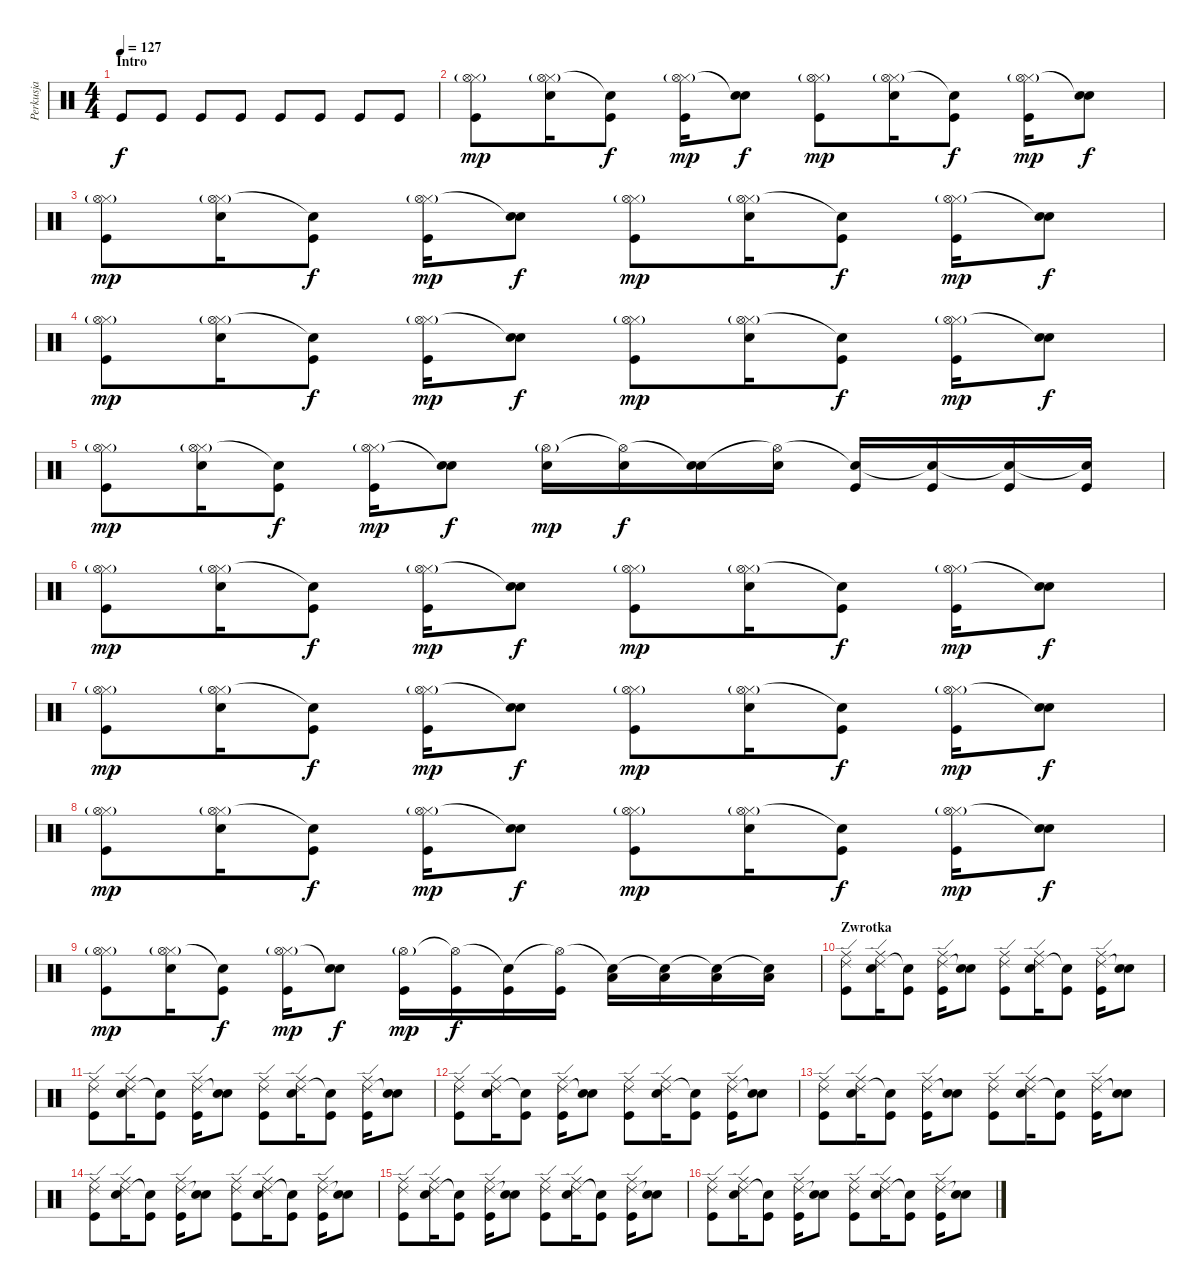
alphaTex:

\track ("Perkusja" "Perkusja") {instrument percussion}
\staff {score}
\articulation defaults
\ts (4 4)
\section ("" "Intro")
\tempo 127
\clef neutral
\ks c "Kick (hit)".8{dy f} "Kick (hit)".8 "Kick (hit)".8 "Kick (hit)".8 "Kick (hit)".8 "Kick (hit)".8 "Kick (hit)".8 "Kick (hit)".8
|
("Kick (hit)" "Hi-Hat (closed)" "Hi-Hat (open)"{g}).8{dy mp} ("Snare (hit) 2" "Hi-Hat (closed)" "Hi-Hat (open)"{g}).16 ("Kick (hit)" "Snare (hit)"{t}).8{dy f} ("Kick (hit)" "Hi-Hat (closed)" "Hi-Hat (open)"{g}).16{dy mp} ("Snare (hit) 2" "Snare (hit)"{t}).8{dy f} ("Kick (hit)" "Hi-Hat (closed)" "Hi-Hat (open)"{g}).8{dy mp} ("Snare (hit) 2" "Hi-Hat (closed)" "Hi-Hat (open)"{g}).16 ("Kick (hit)" "Snare (hit)"{t}).8{dy f} ("Kick (hit)" "Hi-Hat (closed)" "Hi-Hat (open)"{g}).16{dy mp} ("Snare (hit) 2" "Snare (hit)"{t}).8{dy f} |
("Kick (hit)" "Hi-Hat (closed)" "Hi-Hat (open)"{g}).8{dy mp} ("Snare (hit) 2" "Hi-Hat (closed)" "Hi-Hat (open)"{g}).16 ("Kick (hit)" "Snare (hit)"{t}).8{dy f} ("Kick (hit)" "Hi-Hat (closed)" "Hi-Hat (open)"{g}).16{dy mp} ("Snare (hit) 2" "Snare (hit)"{t}).8{dy f} ("Kick (hit)" "Hi-Hat (closed)" "Hi-Hat (open)"{g}).8{dy mp} ("Snare (hit) 2" "Hi-Hat (closed)" "Hi-Hat (open)"{g}).16 ("Kick (hit)" "Snare (hit)"{t}).8{dy f} ("Kick (hit)" "Hi-Hat (closed)" "Hi-Hat (open)"{g}).16{dy mp} ("Snare (hit) 2" "Snare (hit)"{t}).8{dy f} |
("Kick (hit)" "Hi-Hat (closed)" "Hi-Hat (open)"{g}).8{dy mp} ("Snare (hit) 2" "Hi-Hat (closed)" "Hi-Hat (open)"{g}).16 ("Kick (hit)" "Snare (hit)"{t}).8{dy f} ("Kick (hit)" "Hi-Hat (closed)" "Hi-Hat (open)"{g}).16{dy mp} ("Snare (hit) 2" "Snare (hit)"{t}).8{dy f} ("Kick (hit)" "Hi-Hat (closed)" "Hi-Hat (open)"{g}).8{dy mp} ("Snare (hit) 2" "Hi-Hat (closed)" "Hi-Hat (open)"{g}).16 ("Kick (hit)" "Snare (hit)"{t}).8{dy f} ("Kick (hit)" "Hi-Hat (closed)" "Hi-Hat (open)"{g}).16{dy mp} ("Snare (hit) 2" "Snare (hit)"{t}).8{dy f} |
("Kick (hit)" "Hi-Hat (closed)" "Hi-Hat (open)"{g}).8{dy mp} ("Snare (hit) 2" "Hi-Hat (closed)" "Hi-Hat (open)"{g}).16 ("Kick (hit)" "Snare (hit)"{t}).8{dy f} ("Kick (hit)" "Hi-Hat (closed)" "Hi-Hat (open)"{g}).16{dy mp} ("Snare (hit) 2" "Snare (hit)"{t}).8{dy f} ("Snare (hit) 2" "Hi-Hat (open)"{g}).16{dy mp} ("Snare (hit) 2" "Hi-Hat (open)"{t}).16{dy f} ("Snare (hit) 2" "Snare (hit)"{t}).16 ("Snare (hit) 2" "Hi-Hat (open)"{t}).16 ("Kick (hit)" "Snare (hit)"{t}).16 ("Kick (hit)" "Snare (hit)"{t}).16 ("Kick (hit)" "Snare (hit)"{t}).16 ("Kick (hit)" "Snare (hit)"{t}).16 |
("Kick (hit)" "Hi-Hat (closed)" "Hi-Hat (open)"{g}).8{dy mp} ("Snare (hit) 2" "Hi-Hat (closed)" "Hi-Hat (open)"{g}).16 ("Kick (hit)" "Snare (hit)"{t}).8{dy f} ("Kick (hit)" "Hi-Hat (closed)" "Hi-Hat (open)"{g}).16{dy mp} ("Snare (hit) 2" "Snare (hit)"{t}).8{dy f} ("Kick (hit)" "Hi-Hat (closed)" "Hi-Hat (open)"{g}).8{dy mp} ("Snare (hit) 2" "Hi-Hat (closed)" "Hi-Hat (open)"{g}).16 ("Kick (hit)" "Snare (hit)"{t}).8{dy f} ("Kick (hit)" "Hi-Hat (closed)" "Hi-Hat (open)"{g}).16{dy mp} ("Snare (hit) 2" "Snare (hit)"{t}).8{dy f} |
("Kick (hit)" "Hi-Hat (closed)" "Hi-Hat (open)"{g}).8{dy mp} ("Snare (hit) 2" "Hi-Hat (closed)" "Hi-Hat (open)"{g}).16 ("Kick (hit)" "Snare (hit)"{t}).8{dy f} ("Kick (hit)" "Hi-Hat (closed)" "Hi-Hat (open)"{g}).16{dy mp} ("Snare (hit) 2" "Snare (hit)"{t}).8{dy f} ("Kick (hit)" "Hi-Hat (closed)" "Hi-Hat (open)"{g}).8{dy mp} ("Snare (hit) 2" "Hi-Hat (closed)" "Hi-Hat (open)"{g}).16 ("Kick (hit)" "Snare (hit)"{t}).8{dy f} ("Kick (hit)" "Hi-Hat (closed)" "Hi-Hat (open)"{g}).16{dy mp} ("Snare (hit) 2" "Snare (hit)"{t}).8{dy f} |
("Kick (hit)" "Hi-Hat (closed)" "Hi-Hat (open)"{g}).8{dy mp} ("Snare (hit) 2" "Hi-Hat (closed)" "Hi-Hat (open)"{g}).16 ("Kick (hit)" "Snare (hit)"{t}).8{dy f} ("Kick (hit)" "Hi-Hat (closed)" "Hi-Hat (open)"{g}).16{dy mp} ("Snare (hit) 2" "Snare (hit)"{t}).8{dy f} ("Kick (hit)" "Hi-Hat (closed)" "Hi-Hat (open)"{g}).8{dy mp} ("Snare (hit) 2" "Hi-Hat (closed)" "Hi-Hat (open)"{g}).16 ("Kick (hit)" "Snare (hit)"{t}).8{dy f} ("Kick (hit)" "Hi-Hat (closed)" "Hi-Hat (open)"{g}).16{dy mp} ("Snare (hit) 2" "Snare (hit)"{t}).8{dy f} |
("Kick (hit)" "Hi-Hat (closed)" "Hi-Hat (open)"{g}).8{dy mp} ("Snare (hit) 2" "Hi-Hat (closed)" "Hi-Hat (open)"{g}).16 ("Kick (hit)" "Snare (hit)"{t}).8{dy f} ("Kick (hit)" "Hi-Hat (closed)" "Hi-Hat (open)"{g}).16{dy mp} ("Snare (hit) 2" "Snare (hit)"{t}).8{dy f} ("Kick (hit)" "Hi-Hat (open)"{g}).16{dy mp} ("Kick (hit)" "Hi-Hat (open)"{t}).16{dy f} ("Kick (hit)" "Snare (hit)"{t}).16 ("Kick (hit)" "Hi-Hat (open)"{t}).16 ("Low Tom (hit)" "Snare (hit)"{t}).16 ("Low Tom (hit)" "Snare (hit)"{t}).16 ("Low Tom (hit)" "Snare (hit)"{t}).16 ("Low Tom (hit)" "Snare (hit)"{t}).16 |
\section ("" "Zwrotka")
("Kick (hit)" "Ride (edge) 2" "Ride (middle)").8 ("Snare (hit) 2" "Ride (edge) 2" "Ride (middle)").16 ("Kick (hit)" "Snare (hit)"{t}).8 ("Kick (hit)" "Ride (edge) 2" "Ride (middle)").16 ("Snare (hit) 2" "Snare (hit)"{t}).8 ("Kick (hit)" "Ride (edge) 2" "Ride (middle)").8 ("Snare (hit) 2" "Ride (edge) 2" "Ride (middle)").16 ("Kick (hit)" "Snare (hit)"{t}).8 ("Kick (hit)" "Ride (edge) 2" "Ride (middle)").16 ("Snare (hit) 2" "Snare (hit)"{t}).8 |
("Kick (hit)" "Ride (edge) 2" "Ride (middle)").8 ("Snare (hit) 2" "Ride (edge) 2" "Ride (middle)").16 ("Kick (hit)" "Snare (hit)"{t}).8 ("Kick (hit)" "Ride (edge) 2" "Ride (middle)").16 ("Snare (hit) 2" "Snare (hit)"{t}).8 ("Kick (hit)" "Ride (edge) 2" "Ride (middle)").8 ("Snare (hit) 2" "Ride (edge) 2" "Ride (middle)").16 ("Kick (hit)" "Snare (hit)"{t}).8 ("Kick (hit)" "Ride (edge) 2" "Ride (middle)").16 ("Snare (hit) 2" "Snare (hit)"{t}).8 |
("Kick (hit)" "Ride (edge) 2" "Ride (middle)").8 ("Snare (hit) 2" "Ride (edge) 2" "Ride (middle)").16 ("Kick (hit)" "Snare (hit)"{t}).8 ("Kick (hit)" "Ride (edge) 2" "Ride (middle)").16 ("Snare (hit) 2" "Snare (hit)"{t}).8 ("Kick (hit)" "Ride (edge) 2" "Ride (middle)").8 ("Snare (hit) 2" "Ride (edge) 2" "Ride (middle)").16 ("Kick (hit)" "Snare (hit)"{t}).8 ("Kick (hit)" "Ride (edge) 2" "Ride (middle)").16 ("Snare (hit) 2" "Snare (hit)"{t}).8 |
("Kick (hit)" "Ride (edge) 2" "Ride (middle)").8 ("Snare (hit) 2" "Ride (edge) 2" "Ride (middle)").16 ("Kick (hit)" "Snare (hit)"{t}).8 ("Kick (hit)" "Ride (edge) 2" "Ride (middle)").16 ("Snare (hit) 2" "Snare (hit)"{t}).8 ("Kick (hit)" "Ride (edge) 2" "Ride (middle)").8 ("Snare (hit) 2" "Ride (edge) 2" "Ride (middle)").16 ("Kick (hit)" "Snare (hit)"{t}).8 ("Kick (hit)" "Ride (edge) 2" "Ride (middle)").16 ("Snare (hit) 2" "Snare (hit)"{t}).8 |
("Kick (hit)" "Ride (edge) 2" "Ride (middle)").8 ("Snare (hit) 2" "Ride (edge) 2" "Ride (middle)").16 ("Kick (hit)" "Snare (hit)"{t}).8 ("Kick (hit)" "Ride (edge) 2" "Ride (middle)").16 ("Snare (hit) 2" "Snare (hit)"{t}).8 ("Kick (hit)" "Ride (edge) 2" "Ride (middle)").8 ("Snare (hit) 2" "Ride (edge) 2" "Ride (middle)").16 ("Kick (hit)" "Snare (hit)"{t}).8 ("Kick (hit)" "Ride (edge) 2" "Ride (middle)").16 ("Snare (hit) 2" "Snare (hit)"{t}).8 |
("Kick (hit)" "Ride (edge) 2" "Ride (middle)").8 ("Snare (hit) 2" "Ride (edge) 2" "Ride (middle)").16 ("Kick (hit)" "Snare (hit)"{t}).8 ("Kick (hit)" "Ride (edge) 2" "Ride (middle)").16 ("Snare (hit) 2" "Snare (hit)"{t}).8 ("Kick (hit)" "Ride (edge) 2" "Ride (middle)").8 ("Snare (hit) 2" "Ride (edge) 2" "Ride (middle)").16 ("Kick (hit)" "Snare (hit)"{t}).8 ("Kick (hit)" "Ride (edge) 2" "Ride (middle)").16 ("Snare (hit) 2" "Snare (hit)"{t}).8 |
("Kick (hit)" "Ride (edge) 2" "Ride (middle)").8 ("Snare (hit) 2" "Ride (edge) 2" "Ride (middle)").16 ("Kick (hit)" "Snare (hit)"{t}).8 ("Kick (hit)" "Ride (edge) 2" "Ride (middle)").16 ("Snare (hit) 2" "Snare (hit)"{t}).8 ("Kick (hit)" "Ride (edge) 2" "Ride (middle)").8 ("Snare (hit) 2" "Ride (edge) 2" "Ride (middle)").16 ("Kick (hit)" "Snare (hit)"{t}).8 ("Kick (hit)" "Ride (edge) 2" "Ride (middle)").16 ("Snare (hit) 2" "Snare (hit)"{t}).8
